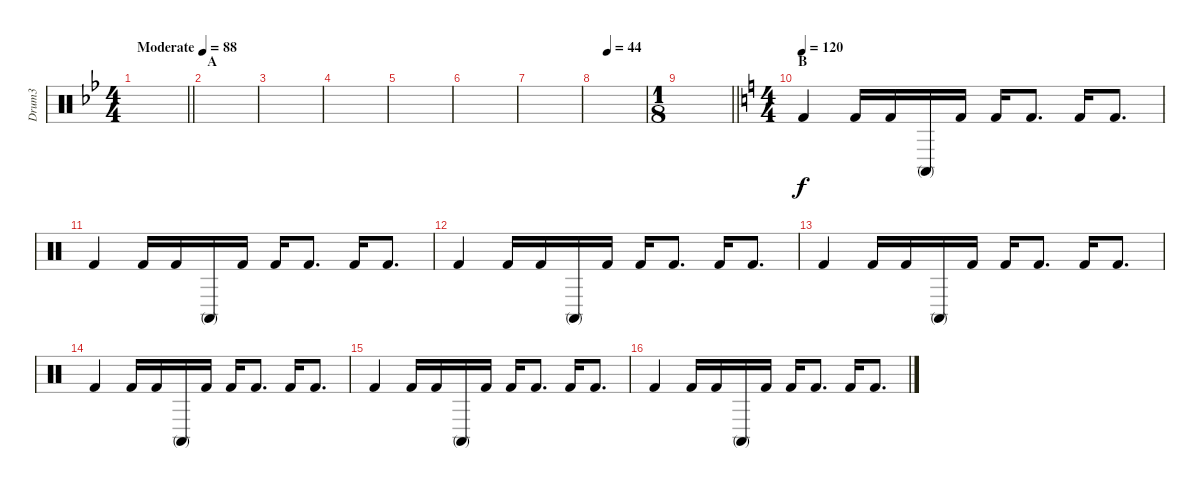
\track ("Drum3" "Drum3") {instrument percussion}
\staff {score}
\articulation defaults
\ts (4 4)
\tempo (88 "Moderate")
\clef neutral
\barLineRight lightlight
\ks bb
|
\section ("" "A")
|
|
|
|
|
|
\tempo (44 0.25)
|
\ts (1 8)
\barLineRight lightlight
|
\ts (4 4)
\section ("" "B")
\tempo 120
\ks c "Kick (hit) 2".4 "Kick (hit) 2".16 "Kick (hit) 2".16 "Conga high (mute)".16 "Kick (hit) 2".16 "Kick (hit) 2".16 "Kick (hit) 2".8{d} "Kick (hit) 2".16 "Kick (hit) 2".8{d}
|
"Kick (hit) 2".4 "Kick (hit) 2".16 "Kick (hit) 2".16 "Conga high (mute)".16 "Kick (hit) 2".16 "Kick (hit) 2".16 "Kick (hit) 2".8{d} "Kick (hit) 2".16 "Kick (hit) 2".8{d} |
"Kick (hit) 2".4 "Kick (hit) 2".16 "Kick (hit) 2".16 "Conga high (mute)".16 "Kick (hit) 2".16 "Kick (hit) 2".16 "Kick (hit) 2".8{d} "Kick (hit) 2".16 "Kick (hit) 2".8{d} |
"Kick (hit) 2".4 "Kick (hit) 2".16 "Kick (hit) 2".16 "Conga high (mute)".16 "Kick (hit) 2".16 "Kick (hit) 2".16 "Kick (hit) 2".8{d} "Kick (hit) 2".16 "Kick (hit) 2".8{d} |
"Kick (hit) 2".4 "Kick (hit) 2".16 "Kick (hit) 2".16 "Conga high (mute)".16 "Kick (hit) 2".16 "Kick (hit) 2".16 "Kick (hit) 2".8{d} "Kick (hit) 2".16 "Kick (hit) 2".8{d} |
"Kick (hit) 2".4 "Kick (hit) 2".16 "Kick (hit) 2".16 "Conga high (mute)".16 "Kick (hit) 2".16 "Kick (hit) 2".16 "Kick (hit) 2".8{d} "Kick (hit) 2".16 "Kick (hit) 2".8{d} |
"Kick (hit) 2".4 "Kick (hit) 2".16 "Kick (hit) 2".16 "Conga high (mute)".16 "Kick (hit) 2".16 "Kick (hit) 2".16 "Kick (hit) 2".8{d} "Kick (hit) 2".16 "Kick (hit) 2".8{d}
